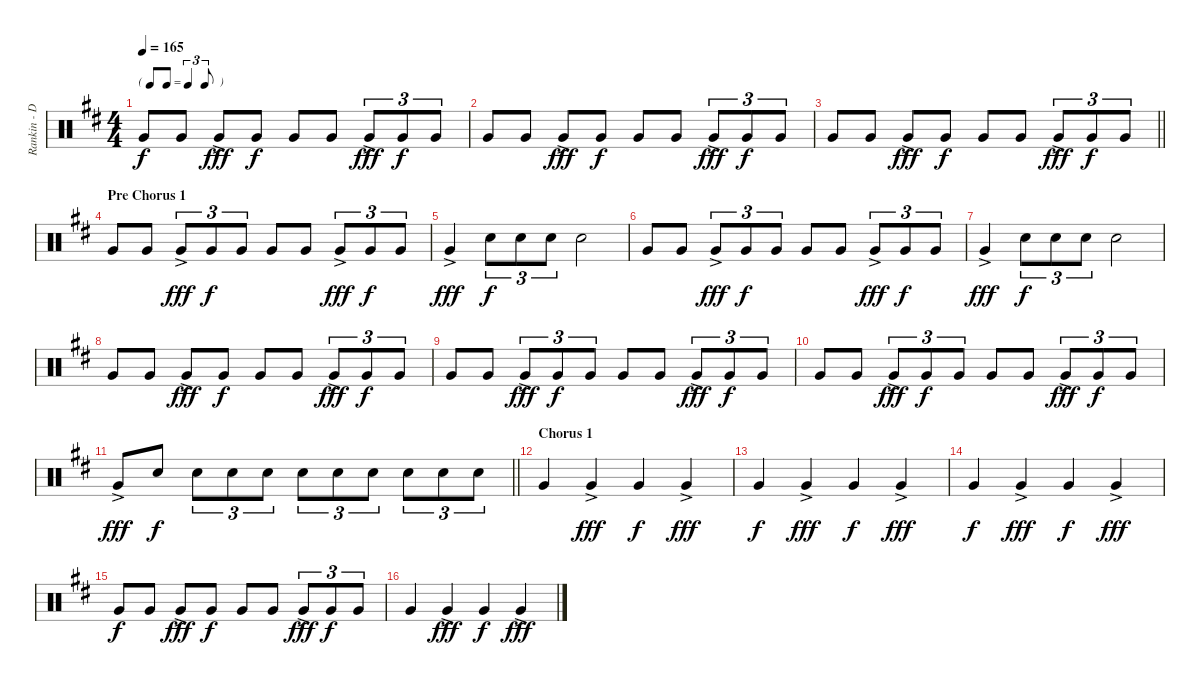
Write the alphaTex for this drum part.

\track ("Rankin - Drums" "Rankin - D") {instrument percussion}
\staff {score}
\articulation defaults
\ts (4 4)
\tf triplet8th
\tempo 165
\clef neutral
\ks d "Very Low Tom (hit)".8{dy f} "Very Low Tom (hit)".8 "Very Low Tom (hit)"{ac}.8{dy fff} "Very Low Tom (hit)".8{dy f} "Very Low Tom (hit)".8 "Very Low Tom (hit)".8 "Very Low Tom (hit)"{ac}.8{tu (3 2) dy fff} "Very Low Tom (hit)".8{tu (3 2) dy f} "Very Low Tom (hit)".8{tu (3 2)}
|
"Very Low Tom (hit)".8 "Very Low Tom (hit)".8 "Very Low Tom (hit)"{ac}.8{dy fff} "Very Low Tom (hit)".8{dy f} "Very Low Tom (hit)".8 "Very Low Tom (hit)".8 "Very Low Tom (hit)"{ac}.8{tu (3 2) dy fff} "Very Low Tom (hit)".8{tu (3 2) dy f} "Very Low Tom (hit)".8{tu (3 2)} |
\barLineRight lightlight "Very Low Tom (hit)".8 "Very Low Tom (hit)".8 "Very Low Tom (hit)"{ac}.8{dy fff} "Very Low Tom (hit)".8{dy f} "Very Low Tom (hit)".8 "Very Low Tom (hit)".8 "Very Low Tom (hit)"{ac}.8{tu (3 2) dy fff} "Very Low Tom (hit)".8{tu (3 2) dy f} "Very Low Tom (hit)".8{tu (3 2)}
|
\section ("" "Pre Chorus 1")
"Very Low Tom (hit)".8 "Very Low Tom (hit)".8 "Very Low Tom (hit)"{ac}.8{tu (3 2) dy fff} "Very Low Tom (hit)".8{tu (3 2) dy f} "Very Low Tom (hit)".8{tu (3 2)} "Very Low Tom (hit)".8 "Very Low Tom (hit)".8 "Very Low Tom (hit)"{ac}.8{tu (3 2) dy fff} "Very Low Tom (hit)".8{tu (3 2) dy f} "Very Low Tom (hit)".8{tu (3 2)} |
"Very Low Tom (hit)"{ac}.4{dy fff} "Electric Snare (hit)".8{tu (3 2) dy f} "Electric Snare (hit)".8{tu (3 2)} "Electric Snare (hit)".8{tu (3 2)} "Electric Snare (hit)".2 |
"Very Low Tom (hit)".8 "Very Low Tom (hit)".8 "Very Low Tom (hit)"{ac}.8{tu (3 2) dy fff} "Very Low Tom (hit)".8{tu (3 2) dy f} "Very Low Tom (hit)".8{tu (3 2)} "Very Low Tom (hit)".8 "Very Low Tom (hit)".8 "Very Low Tom (hit)"{ac}.8{tu (3 2) dy fff} "Very Low Tom (hit)".8{tu (3 2) dy f} "Very Low Tom (hit)".8{tu (3 2)} |
"Very Low Tom (hit)"{ac}.4{dy fff} "Electric Snare (hit)".8{tu (3 2) dy f} "Electric Snare (hit)".8{tu (3 2)} "Electric Snare (hit)".8{tu (3 2)} "Electric Snare (hit)".2 |
"Very Low Tom (hit)".8 "Very Low Tom (hit)".8 "Very Low Tom (hit)"{ac}.8{dy fff} "Very Low Tom (hit)".8{dy f} "Very Low Tom (hit)".8 "Very Low Tom (hit)".8 "Very Low Tom (hit)"{ac}.8{tu (3 2) dy fff} "Very Low Tom (hit)".8{tu (3 2) dy f} "Very Low Tom (hit)".8{tu (3 2)} |
"Very Low Tom (hit)".8 "Very Low Tom (hit)".8 "Very Low Tom (hit)"{ac}.8{tu (3 2) dy fff} "Very Low Tom (hit)".8{tu (3 2) dy f} "Very Low Tom (hit)".8{tu (3 2)} "Very Low Tom (hit)".8 "Very Low Tom (hit)".8 "Very Low Tom (hit)"{ac}.8{tu (3 2) dy fff} "Very Low Tom (hit)".8{tu (3 2) dy f} "Very Low Tom (hit)".8{tu (3 2)} |
"Very Low Tom (hit)".8 "Very Low Tom (hit)".8 "Very Low Tom (hit)"{ac}.8{tu (3 2) dy fff} "Very Low Tom (hit)".8{tu (3 2) dy f} "Very Low Tom (hit)".8{tu (3 2)} "Very Low Tom (hit)".8 "Very Low Tom (hit)".8 "Very Low Tom (hit)"{ac}.8{tu (3 2) dy fff} "Very Low Tom (hit)".8{tu (3 2) dy f} "Very Low Tom (hit)".8{tu (3 2)} |
\barLineRight lightlight "Very Low Tom (hit)"{ac}.8{dy fff} "Electric Snare (hit)".8{dy f} "Electric Snare (hit)".8{tu (3 2)} "Electric Snare (hit)".8{tu (3 2)} "Electric Snare (hit)".8{tu (3 2)} "Electric Snare (hit)".8{tu (3 2)} "Electric Snare (hit)".8{tu (3 2)} "Electric Snare (hit)".8{tu (3 2)} "Electric Snare (hit)".8{tu (3 2)} "Electric Snare (hit)".8{tu (3 2)} "Electric Snare (hit)".8{tu (3 2)}
|
\section ("" "Chorus 1")
"Very Low Tom (hit)".4 "Very Low Tom (hit)"{ac}.4{dy fff} "Very Low Tom (hit)".4{dy f} "Very Low Tom (hit)"{ac}.4{dy fff} |
"Very Low Tom (hit)".4{dy f} "Very Low Tom (hit)"{ac}.4{dy fff} "Very Low Tom (hit)".4{dy f} "Very Low Tom (hit)"{ac}.4{dy fff} |
"Very Low Tom (hit)".4{dy f} "Very Low Tom (hit)"{ac}.4{dy fff} "Very Low Tom (hit)".4{dy f} "Very Low Tom (hit)"{ac}.4{dy fff} |
"Very Low Tom (hit)".8{dy f} "Very Low Tom (hit)".8 "Very Low Tom (hit)"{ac}.8{dy fff} "Very Low Tom (hit)".8{dy f} "Very Low Tom (hit)".8 "Very Low Tom (hit)".8 "Very Low Tom (hit)"{ac}.8{tu (3 2) dy fff} "Very Low Tom (hit)".8{tu (3 2) dy f} "Very Low Tom (hit)".8{tu (3 2)} |
"Very Low Tom (hit)".4 "Very Low Tom (hit)"{ac}.4{dy fff} "Very Low Tom (hit)".4{dy f} "Very Low Tom (hit)"{ac}.4{dy fff}
